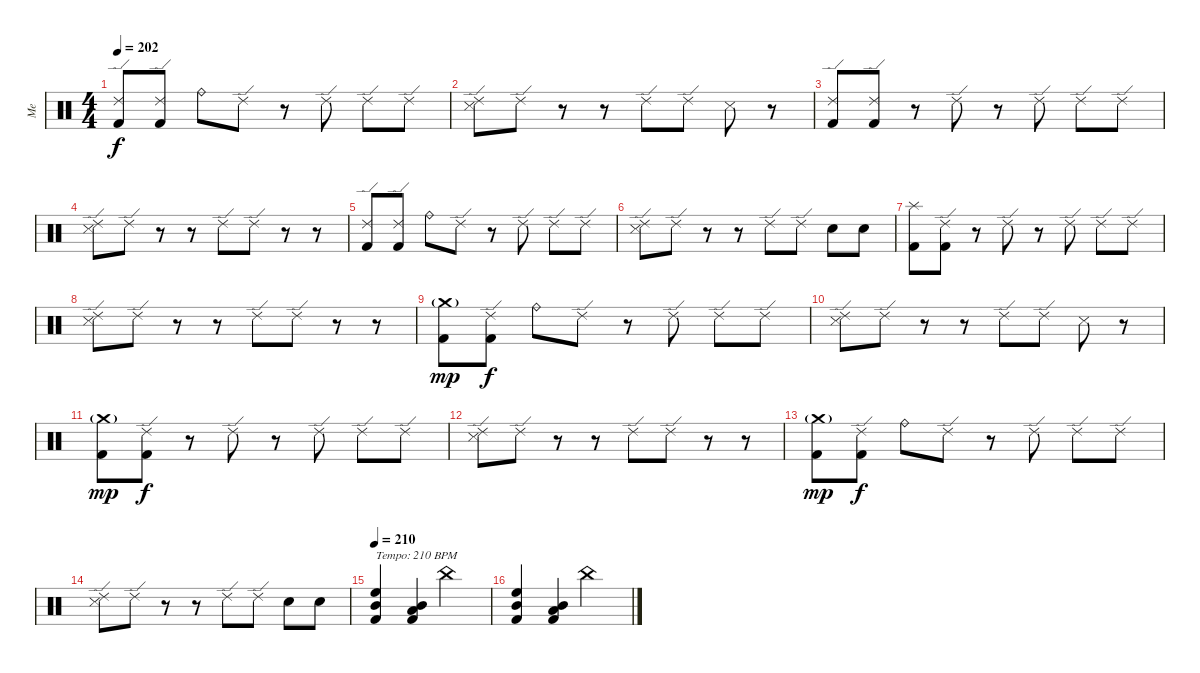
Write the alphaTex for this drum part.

\track ("Me" "Me") {instrument percussion}
\staff {score}
\articulation defaults
\ts (4 4)
\tempo 202
\clef neutral
\ks c
("Ride (edge) 2" "Kick (hit) 2").8{dy f} ("Ride (edge) 2" "Kick (hit) 2").8 "Ride (bell)".8 "Ride (edge) 2".8 r.8 "Ride (edge) 2".8 "Ride (edge) 2".8 "Ride (edge) 2".8 |
("Ride (edge) 2" "Snare (side stick) 3").8 "Ride (edge) 2".8 r.8 r.8 "Ride (edge) 2".8 "Ride (edge) 2".8 "Snare (side stick) 3".8 r.8 |
("Ride (edge) 2" "Kick (hit) 2").8 ("Ride (edge) 2" "Kick (hit) 2").8 r.8 "Ride (edge) 2".8 r.8 "Ride (edge) 2".8 "Ride (edge) 2".8 "Ride (edge) 2".8 |
("Ride (edge) 2" "Snare (side stick) 3").8 "Ride (edge) 2".8 r.8 r.8 "Ride (edge) 2".8 "Ride (edge) 2".8 r.8 r.8 |
("Ride (edge) 2" "Kick (hit) 2").8 ("Ride (edge) 2" "Kick (hit) 2").8 "Ride (bell)".8 "Ride (edge) 2".8 r.8 "Ride (edge) 2".8 "Ride (edge) 2".8 "Ride (edge) 2".8 |
("Ride (edge) 2" "Snare (side stick) 3").8 "Ride (edge) 2".8 r.8 r.8 "Ride (edge) 2".8 "Ride (edge) 2".8 "Electric Snare (hit)".8 "Electric Snare (hit)".8 |
("Splash (hit)" "Kick (hit) 2").8 ("Ride (edge) 2" "Kick (hit) 2").8 r.8 "Ride (edge) 2".8 r.8 "Ride (edge) 2".8 "Ride (edge) 2".8 "Ride (edge) 2".8 |
("Ride (edge) 2" "Snare (side stick) 3").8 "Ride (edge) 2".8 r.8 r.8 "Ride (edge) 2".8 "Ride (edge) 2".8 r.8 r.8 |
("Crash medium (hit)"{g} "Kick (hit) 2").8{dy mp} ("Ride (edge) 2" "Kick (hit) 2").8{dy f} "Ride (bell)".8 "Ride (edge) 2".8 r.8 "Ride (edge) 2".8 "Ride (edge) 2".8 "Ride (edge) 2".8 |
("Ride (edge) 2" "Snare (side stick) 3").8 "Ride (edge) 2".8 r.8 r.8 "Ride (edge) 2".8 "Ride (edge) 2".8 "Snare (side stick) 3".8 r.8 |
("Crash medium (hit)"{g} "Kick (hit) 2").8{dy mp} ("Ride (edge) 2" "Kick (hit) 2").8{dy f} r.8 "Ride (edge) 2".8 r.8 "Ride (edge) 2".8 "Ride (edge) 2".8 "Ride (edge) 2".8 |
("Ride (edge) 2" "Snare (side stick) 3").8 "Ride (edge) 2".8 r.8 r.8 "Ride (edge) 2".8 "Ride (edge) 2".8 r.8 r.8 |
("Crash medium (hit)"{g} "Kick (hit) 2").8{dy mp} ("Ride (edge) 2" "Kick (hit) 2").8{dy f} "Ride (bell)".8 "Ride (edge) 2".8 r.8 "Ride (edge) 2".8 "Ride (edge) 2".8 "Ride (edge) 2".8 |
("Ride (edge) 2" "Snare (side stick) 3").8 "Ride (edge) 2".8 r.8 r.8 "Ride (edge) 2".8 "Ride (edge) 2".8 "Electric Snare (hit)".8 "Electric Snare (hit)".8 |
\section ("" "")
\tempo 210
("High Floor Tom (hit)" "Mid Tom (hit)" "Kick (hit) 2").4{txt "Tempo: 210 BPM"} ("Mid Tom (hit)" "Low Tom (hit)" "Kick (hit) 2").4 "China (hit)".2 |
("High Floor Tom (hit)" "Mid Tom (hit)" "Kick (hit) 2").4 ("Mid Tom (hit)" "Low Tom (hit)" "Kick (hit) 2").4 "China (hit)".2
